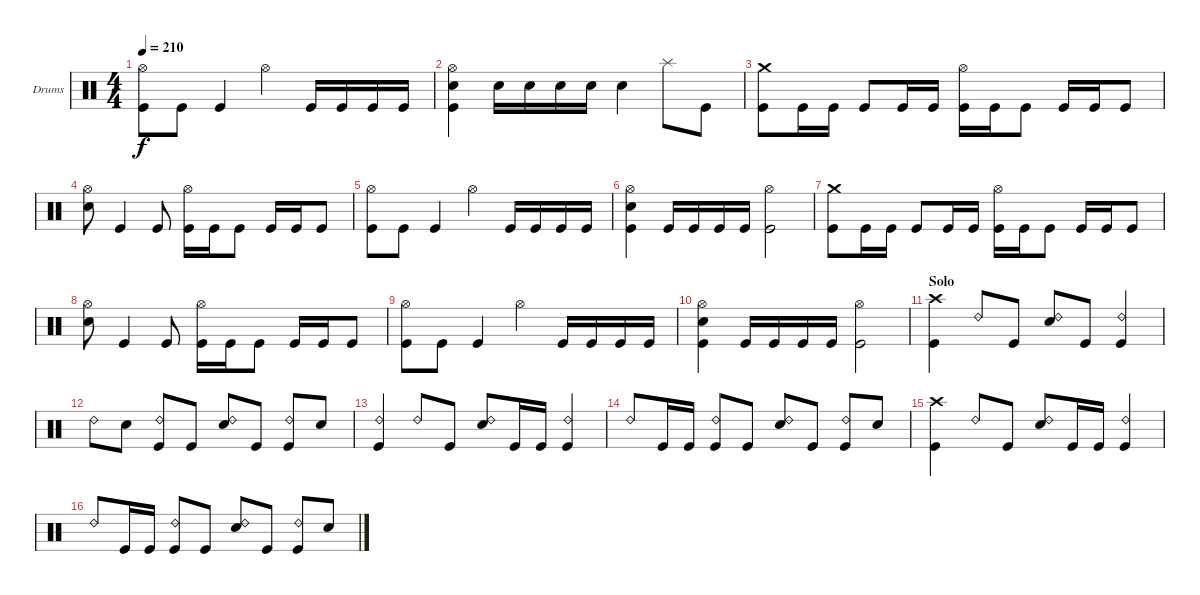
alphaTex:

\bracketExtendMode groupsimilarinstruments
\firstSystemTrackNameOrientation horizontal
\otherSystemsTrackNameOrientation horizontal
\track ("Drumkit" "Drums") {instrument percussion}
\staff {score}
\articulation defaults
\ts (4 4)
\tempo 210
\clef neutral
\ks c
("Hi-Hat (open)" "Kick (hit)").8{dy f} "Kick (hit)".8 "Kick (hit)".4 "Hi-Hat (open)".4 "Kick (hit)".16 "Kick (hit)".16 "Kick (hit)".16 "Kick (hit)".16 |
("Hi-Hat (open)" "Snare (hit) 2" "Kick (hit)").4 "Snare (hit) 2".16 "Snare (hit) 2".16 "Snare (hit) 2".16 "Snare (hit) 2".16 "Snare (hit) 2".4 "Splash (hit)".8 "Kick (hit)".8 |
("Kick (hit)" "Crash medium (hit)").8 "Kick (hit)".16 "Kick (hit)".16 "Kick (hit)".8 "Kick (hit)".16 "Kick (hit)".16 ("Kick (hit)" "Hi-Hat (open)").16 "Kick (hit)".16 "Kick (hit)".8 "Kick (hit)".16 "Kick (hit)".16 "Kick (hit)".8 |
("Hi-Hat (open)" "Snare (hit) 2").8 "Kick (hit)".4 "Kick (hit)".8 ("Hi-Hat (open)" "Kick (hit)").16 "Kick (hit)".16 "Kick (hit)".8 "Kick (hit)".16 "Kick (hit)".16 "Kick (hit)".8 |
("Hi-Hat (open)" "Kick (hit)").8 "Kick (hit)".8 "Kick (hit)".4 "Hi-Hat (open)".4 "Kick (hit)".16 "Kick (hit)".16 "Kick (hit)".16 "Kick (hit)".16 |
("Hi-Hat (open)" "Snare (hit) 2" "Kick (hit)").4 "Kick (hit)".16 "Kick (hit)".16 "Kick (hit)".16 "Kick (hit)".16 ("Hi-Hat (open)" "Kick (hit)").2 |
("Kick (hit)" "Crash medium (hit)").8 "Kick (hit)".16 "Kick (hit)".16 "Kick (hit)".8 "Kick (hit)".16 "Kick (hit)".16 ("Kick (hit)" "Hi-Hat (open)").16 "Kick (hit)".16 "Kick (hit)".8 "Kick (hit)".16 "Kick (hit)".16 "Kick (hit)".8 |
("Hi-Hat (open)" "Snare (hit) 2").8 "Kick (hit)".4 "Kick (hit)".8 ("Hi-Hat (open)" "Kick (hit)").16 "Kick (hit)".16 "Kick (hit)".8 "Kick (hit)".16 "Kick (hit)".16 "Kick (hit)".8 |
("Hi-Hat (open)" "Kick (hit)").8 "Kick (hit)".8 "Kick (hit)".4 "Hi-Hat (open)".4 "Kick (hit)".16 "Kick (hit)".16 "Kick (hit)".16 "Kick (hit)".16 |
("Hi-Hat (open)" "Snare (hit) 2" "Kick (hit)").4 "Kick (hit)".16 "Kick (hit)".16 "Kick (hit)".16 "Kick (hit)".16 ("Hi-Hat (open)" "Kick (hit)").2 |
\section ("" "Solo")
("Crash high (hit)" "Kick (hit)").4 "Ride (bell) 2".8 "Kick (hit)".8 ("Ride (bell) 2" "Snare (hit) 2").8 "Kick (hit)".8 ("Ride (bell) 2" "Kick (hit)").4 |
"Ride (bell) 2".8 "Snare (hit) 2".8 ("Ride (bell) 2" "Kick (hit)").8 "Kick (hit)".8 ("Ride (bell) 2" "Snare (hit) 2").8 "Kick (hit)".8 ("Ride (bell) 2" "Kick (hit)").8 "Snare (hit) 2".8 |
("Ride (bell) 2" "Kick (hit)").4 "Ride (bell) 2".8 "Kick (hit)".8 ("Ride (bell) 2" "Snare (hit) 2").8 "Kick (hit)".16 "Kick (hit)".16 ("Ride (bell) 2" "Kick (hit)").4 |
"Ride (bell) 2".8 "Kick (hit)".16 "Kick (hit)".16 ("Ride (bell) 2" "Kick (hit)").8 "Kick (hit)".8 ("Ride (bell) 2" "Snare (hit) 2").8 "Kick (hit)".8 ("Ride (bell) 2" "Kick (hit)").8 "Snare (hit) 2".8 |
("Crash high (hit)" "Kick (hit)").4 "Ride (bell) 2".8 "Kick (hit)".8 ("Ride (bell) 2" "Snare (hit) 2").8 "Kick (hit)".16 "Kick (hit)".16 ("Ride (bell) 2" "Kick (hit)").4 |
"Ride (bell) 2".8 "Kick (hit)".16 "Kick (hit)".16 ("Ride (bell) 2" "Kick (hit)").8 "Kick (hit)".8 ("Ride (bell) 2" "Snare (hit) 2").8 "Kick (hit)".8 ("Ride (bell) 2" "Kick (hit)").8 "Snare (hit) 2".8
